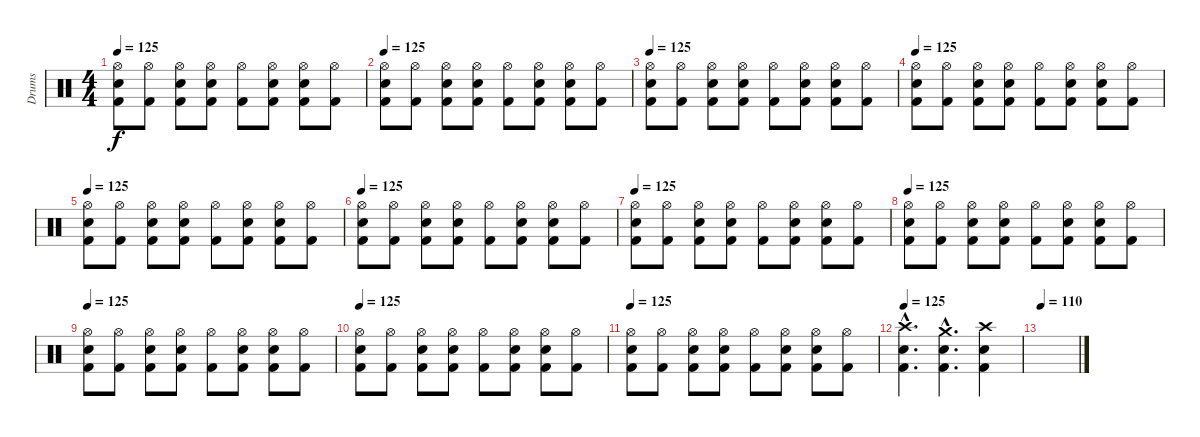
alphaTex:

\track ("Drums" "Drums") {instrument percussion}
\staff {score}
\articulation defaults
\ts (4 4)
\tempo 125
\clef neutral
\ks c
("Hi-Hat (open)" "Kick (hit) 2" "Electric Snare (hit)").8{dy f} ("Hi-Hat (open)" "Kick (hit) 2").8 ("Hi-Hat (open)" "Kick (hit) 2" "Electric Snare (hit)").8 ("Hi-Hat (open)" "Kick (hit) 2" "Electric Snare (hit)").8 ("Hi-Hat (open)" "Kick (hit) 2").8 ("Hi-Hat (open)" "Kick (hit) 2" "Electric Snare (hit)").8 ("Hi-Hat (open)" "Kick (hit) 2" "Electric Snare (hit)").8 ("Hi-Hat (open)" "Kick (hit) 2").8 |
\tempo 125
("Hi-Hat (open)" "Kick (hit) 2" "Electric Snare (hit)").8 ("Hi-Hat (open)" "Kick (hit) 2").8 ("Hi-Hat (open)" "Kick (hit) 2" "Electric Snare (hit)").8 ("Hi-Hat (open)" "Kick (hit) 2" "Electric Snare (hit)").8 ("Hi-Hat (open)" "Kick (hit) 2").8 ("Hi-Hat (open)" "Kick (hit) 2" "Electric Snare (hit)").8 ("Hi-Hat (open)" "Kick (hit) 2" "Electric Snare (hit)").8 ("Hi-Hat (open)" "Kick (hit) 2").8 |
\tempo 125
("Hi-Hat (open)" "Kick (hit) 2" "Electric Snare (hit)").8 ("Hi-Hat (open)" "Kick (hit) 2").8 ("Hi-Hat (open)" "Kick (hit) 2" "Electric Snare (hit)").8 ("Hi-Hat (open)" "Kick (hit) 2" "Electric Snare (hit)").8 ("Hi-Hat (open)" "Kick (hit) 2").8 ("Hi-Hat (open)" "Kick (hit) 2" "Electric Snare (hit)").8 ("Hi-Hat (open)" "Kick (hit) 2" "Electric Snare (hit)").8 ("Hi-Hat (open)" "Kick (hit) 2").8 |
\tempo 125
("Hi-Hat (open)" "Kick (hit) 2" "Electric Snare (hit)").8 ("Hi-Hat (open)" "Kick (hit) 2").8 ("Hi-Hat (open)" "Kick (hit) 2" "Electric Snare (hit)").8 ("Hi-Hat (open)" "Kick (hit) 2" "Electric Snare (hit)").8 ("Hi-Hat (open)" "Kick (hit) 2").8 ("Hi-Hat (open)" "Kick (hit) 2" "Electric Snare (hit)").8 ("Hi-Hat (open)" "Kick (hit) 2" "Electric Snare (hit)").8 ("Hi-Hat (open)" "Kick (hit) 2").8 |
\tempo 125
("Hi-Hat (open)" "Kick (hit) 2" "Electric Snare (hit)").8 ("Hi-Hat (open)" "Kick (hit) 2").8 ("Hi-Hat (open)" "Kick (hit) 2" "Electric Snare (hit)").8 ("Hi-Hat (open)" "Kick (hit) 2" "Electric Snare (hit)").8 ("Hi-Hat (open)" "Kick (hit) 2").8 ("Hi-Hat (open)" "Kick (hit) 2" "Electric Snare (hit)").8 ("Hi-Hat (open)" "Kick (hit) 2" "Electric Snare (hit)").8 ("Hi-Hat (open)" "Kick (hit) 2").8 |
\tempo 125
("Hi-Hat (open)" "Kick (hit) 2" "Electric Snare (hit)").8 ("Hi-Hat (open)" "Kick (hit) 2").8 ("Hi-Hat (open)" "Kick (hit) 2" "Electric Snare (hit)").8 ("Hi-Hat (open)" "Kick (hit) 2" "Electric Snare (hit)").8 ("Hi-Hat (open)" "Kick (hit) 2").8 ("Hi-Hat (open)" "Kick (hit) 2" "Electric Snare (hit)").8 ("Hi-Hat (open)" "Kick (hit) 2" "Electric Snare (hit)").8 ("Hi-Hat (open)" "Kick (hit) 2").8 |
\tempo 125
("Hi-Hat (open)" "Kick (hit) 2" "Electric Snare (hit)").8 ("Hi-Hat (open)" "Kick (hit) 2").8 ("Hi-Hat (open)" "Kick (hit) 2" "Electric Snare (hit)").8 ("Hi-Hat (open)" "Kick (hit) 2" "Electric Snare (hit)").8 ("Hi-Hat (open)" "Kick (hit) 2").8 ("Hi-Hat (open)" "Kick (hit) 2" "Electric Snare (hit)").8 ("Hi-Hat (open)" "Kick (hit) 2" "Electric Snare (hit)").8 ("Hi-Hat (open)" "Kick (hit) 2").8 |
\tempo 125
("Hi-Hat (open)" "Kick (hit) 2" "Electric Snare (hit)").8 ("Hi-Hat (open)" "Kick (hit) 2").8 ("Hi-Hat (open)" "Kick (hit) 2" "Electric Snare (hit)").8 ("Hi-Hat (open)" "Kick (hit) 2" "Electric Snare (hit)").8 ("Hi-Hat (open)" "Kick (hit) 2").8 ("Hi-Hat (open)" "Kick (hit) 2" "Electric Snare (hit)").8 ("Hi-Hat (open)" "Kick (hit) 2" "Electric Snare (hit)").8 ("Hi-Hat (open)" "Kick (hit) 2").8 |
\tempo 125
("Hi-Hat (open)" "Kick (hit) 2" "Electric Snare (hit)").8 ("Hi-Hat (open)" "Kick (hit) 2").8 ("Hi-Hat (open)" "Kick (hit) 2" "Electric Snare (hit)").8 ("Hi-Hat (open)" "Kick (hit) 2" "Electric Snare (hit)").8 ("Hi-Hat (open)" "Kick (hit) 2").8 ("Hi-Hat (open)" "Kick (hit) 2" "Electric Snare (hit)").8 ("Hi-Hat (open)" "Kick (hit) 2" "Electric Snare (hit)").8 ("Hi-Hat (open)" "Kick (hit) 2").8 |
\tempo 125
("Hi-Hat (open)" "Kick (hit) 2" "Electric Snare (hit)").8 ("Hi-Hat (open)" "Kick (hit) 2").8 ("Hi-Hat (open)" "Kick (hit) 2" "Electric Snare (hit)").8 ("Hi-Hat (open)" "Kick (hit) 2" "Electric Snare (hit)").8 ("Hi-Hat (open)" "Kick (hit) 2").8 ("Hi-Hat (open)" "Kick (hit) 2" "Electric Snare (hit)").8 ("Hi-Hat (open)" "Kick (hit) 2" "Electric Snare (hit)").8 ("Hi-Hat (open)" "Kick (hit) 2").8 |
\tempo 125
("Hi-Hat (open)" "Kick (hit) 2" "Electric Snare (hit)").8 ("Hi-Hat (open)" "Kick (hit) 2").8 ("Hi-Hat (open)" "Kick (hit) 2" "Electric Snare (hit)").8 ("Hi-Hat (open)" "Kick (hit) 2" "Electric Snare (hit)").8 ("Hi-Hat (open)" "Kick (hit) 2").8 ("Hi-Hat (open)" "Kick (hit) 2" "Electric Snare (hit)").8 ("Hi-Hat (open)" "Kick (hit) 2" "Electric Snare (hit)").8 ("Hi-Hat (open)" "Kick (hit) 2").8 |
\tempo 125
("Kick (hit) 2"{hac} "Electric Snare (hit)"{hac} "Crash high (hit)"{hac}).4{d} ("Kick (hit) 2"{hac} "Electric Snare (hit)"{hac} "Crash medium (hit)"{hac}).4{d} ("Kick (hit) 2" "Electric Snare (hit)" "Crash high (hit)").4 |
\tempo 110
